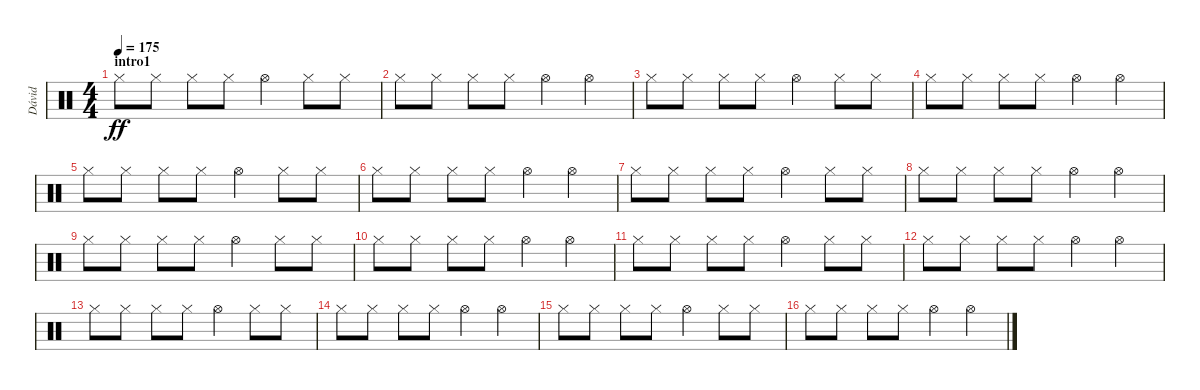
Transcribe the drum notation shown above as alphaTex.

\track ("Dávid" "Dávid") {instrument percussion}
\staff {score}
\articulation defaults
\ts (4 4)
\section ("" "intro1")
\tempo 175
\clef neutral
\ks c "Hi-Hat (closed)".8{dy ff} "Hi-Hat (closed)".8 "Hi-Hat (closed)".8 "Hi-Hat (closed)".8 "Hi-Hat (open)".4 "Hi-Hat (closed)".8 "Hi-Hat (closed)".8
|
"Hi-Hat (closed)".8 "Hi-Hat (closed)".8 "Hi-Hat (closed)".8 "Hi-Hat (closed)".8 "Hi-Hat (open)".4 "Hi-Hat (open)".4 |
"Hi-Hat (closed)".8 "Hi-Hat (closed)".8 "Hi-Hat (closed)".8 "Hi-Hat (closed)".8 "Hi-Hat (open)".4 "Hi-Hat (closed)".8 "Hi-Hat (closed)".8 |
"Hi-Hat (closed)".8 "Hi-Hat (closed)".8 "Hi-Hat (closed)".8 "Hi-Hat (closed)".8 "Hi-Hat (open)".4 "Hi-Hat (open)".4 |
"Hi-Hat (closed)".8 "Hi-Hat (closed)".8 "Hi-Hat (closed)".8 "Hi-Hat (closed)".8 "Hi-Hat (open)".4 "Hi-Hat (closed)".8 "Hi-Hat (closed)".8 |
"Hi-Hat (closed)".8 "Hi-Hat (closed)".8 "Hi-Hat (closed)".8 "Hi-Hat (closed)".8 "Hi-Hat (open)".4 "Hi-Hat (open)".4 |
"Hi-Hat (closed)".8 "Hi-Hat (closed)".8 "Hi-Hat (closed)".8 "Hi-Hat (closed)".8 "Hi-Hat (open)".4 "Hi-Hat (closed)".8 "Hi-Hat (closed)".8 |
"Hi-Hat (closed)".8 "Hi-Hat (closed)".8 "Hi-Hat (closed)".8 "Hi-Hat (closed)".8 "Hi-Hat (open)".4 "Hi-Hat (open)".4 |
"Hi-Hat (closed)".8 "Hi-Hat (closed)".8 "Hi-Hat (closed)".8 "Hi-Hat (closed)".8 "Hi-Hat (open)".4 "Hi-Hat (closed)".8 "Hi-Hat (closed)".8 |
"Hi-Hat (closed)".8 "Hi-Hat (closed)".8 "Hi-Hat (closed)".8 "Hi-Hat (closed)".8 "Hi-Hat (open)".4 "Hi-Hat (open)".4 |
"Hi-Hat (closed)".8 "Hi-Hat (closed)".8 "Hi-Hat (closed)".8 "Hi-Hat (closed)".8 "Hi-Hat (open)".4 "Hi-Hat (closed)".8 "Hi-Hat (closed)".8 |
"Hi-Hat (closed)".8 "Hi-Hat (closed)".8 "Hi-Hat (closed)".8 "Hi-Hat (closed)".8 "Hi-Hat (open)".4 "Hi-Hat (open)".4 |
"Hi-Hat (closed)".8 "Hi-Hat (closed)".8 "Hi-Hat (closed)".8 "Hi-Hat (closed)".8 "Hi-Hat (open)".4 "Hi-Hat (closed)".8 "Hi-Hat (closed)".8 |
"Hi-Hat (closed)".8 "Hi-Hat (closed)".8 "Hi-Hat (closed)".8 "Hi-Hat (closed)".8 "Hi-Hat (open)".4 "Hi-Hat (open)".4 |
"Hi-Hat (closed)".8 "Hi-Hat (closed)".8 "Hi-Hat (closed)".8 "Hi-Hat (closed)".8 "Hi-Hat (open)".4 "Hi-Hat (closed)".8 "Hi-Hat (closed)".8 |
"Hi-Hat (closed)".8 "Hi-Hat (closed)".8 "Hi-Hat (closed)".8 "Hi-Hat (closed)".8 "Hi-Hat (open)".4 "Hi-Hat (open)".4
